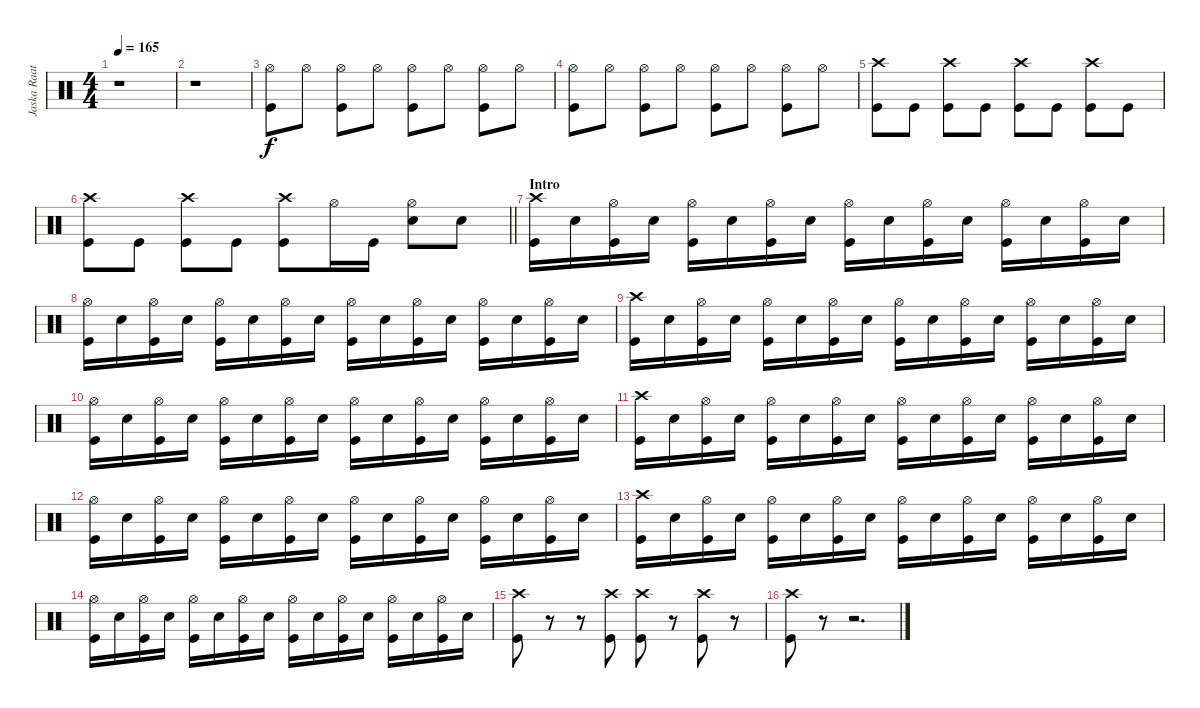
\track ("Jaska Raatikainen" "Jaska Raat") {instrument percussion}
\staff {score}
\articulation defaults
\ts (4 4)
\tempo 165
\clef neutral
\ks c
r.1{dy f} |
r.1 |
("Hi-Hat (open)" "Kick (hit)").8 "Hi-Hat (open)".8 ("Hi-Hat (open)" "Kick (hit)").8 "Hi-Hat (open)".8 ("Hi-Hat (open)" "Kick (hit)").8 "Hi-Hat (open)".8 ("Hi-Hat (open)" "Kick (hit)").8 "Hi-Hat (open)".8 |
("Hi-Hat (open)" "Kick (hit)").8 "Hi-Hat (open)".8 ("Hi-Hat (open)" "Kick (hit)").8 "Hi-Hat (open)".8 ("Hi-Hat (open)" "Kick (hit)").8 "Hi-Hat (open)".8 ("Hi-Hat (open)" "Kick (hit)").8 "Hi-Hat (open)".8 |
("Crash high (hit)" "Kick (hit)").8 "Kick (hit)".8 ("Crash high (hit)" "Kick (hit)").8 "Kick (hit)".8 ("Crash high (hit)" "Kick (hit)").8 "Kick (hit)".8 ("Crash high (hit)" "Kick (hit)").8 "Kick (hit)".8 |
\barLineRight lightlight
("Crash high (hit)" "Kick (hit)").8 "Kick (hit)".8 ("Crash high (hit)" "Kick (hit)").8 "Kick (hit)".8 ("Crash high (hit)" "Kick (hit)").8 "Hi-Hat (open)".16 "Kick (hit)".16 ("Hi-Hat (open)" "Electric Snare (hit)").8 "Electric Snare (hit)".8 |
\section ("" "Intro")
("Crash high (hit)" "Kick (hit)").16 "Electric Snare (hit)".16 ("Hi-Hat (open)" "Kick (hit)").16 "Electric Snare (hit)".16 ("Hi-Hat (open)" "Kick (hit)").16 "Electric Snare (hit)".16 ("Hi-Hat (open)" "Kick (hit)").16 "Electric Snare (hit)".16 ("Hi-Hat (open)" "Kick (hit)").16 "Electric Snare (hit)".16 ("Hi-Hat (open)" "Kick (hit)").16 "Electric Snare (hit)".16 ("Hi-Hat (open)" "Kick (hit)").16 "Electric Snare (hit)".16 ("Hi-Hat (open)" "Kick (hit)").16 "Electric Snare (hit)".16 |
("Hi-Hat (open)" "Kick (hit)").16 "Electric Snare (hit)".16 ("Hi-Hat (open)" "Kick (hit)").16 "Electric Snare (hit)".16 ("Hi-Hat (open)" "Kick (hit)").16 "Electric Snare (hit)".16 ("Hi-Hat (open)" "Kick (hit)").16 "Electric Snare (hit)".16 ("Hi-Hat (open)" "Kick (hit)").16 "Electric Snare (hit)".16 ("Hi-Hat (open)" "Kick (hit)").16 "Electric Snare (hit)".16 ("Hi-Hat (open)" "Kick (hit)").16 "Electric Snare (hit)".16 ("Hi-Hat (open)" "Kick (hit)").16 "Electric Snare (hit)".16 |
("Crash high (hit)" "Kick (hit)").16 "Electric Snare (hit)".16 ("Hi-Hat (open)" "Kick (hit)").16 "Electric Snare (hit)".16 ("Hi-Hat (open)" "Kick (hit)").16 "Electric Snare (hit)".16 ("Hi-Hat (open)" "Kick (hit)").16 "Electric Snare (hit)".16 ("Hi-Hat (open)" "Kick (hit)").16 "Electric Snare (hit)".16 ("Hi-Hat (open)" "Kick (hit)").16 "Electric Snare (hit)".16 ("Hi-Hat (open)" "Kick (hit)").16 "Electric Snare (hit)".16 ("Hi-Hat (open)" "Kick (hit)").16 "Electric Snare (hit)".16 |
("Hi-Hat (open)" "Kick (hit)").16 "Electric Snare (hit)".16 ("Hi-Hat (open)" "Kick (hit)").16 "Electric Snare (hit)".16 ("Hi-Hat (open)" "Kick (hit)").16 "Electric Snare (hit)".16 ("Hi-Hat (open)" "Kick (hit)").16 "Electric Snare (hit)".16 ("Hi-Hat (open)" "Kick (hit)").16 "Electric Snare (hit)".16 ("Hi-Hat (open)" "Kick (hit)").16 "Electric Snare (hit)".16 ("Hi-Hat (open)" "Kick (hit)").16 "Electric Snare (hit)".16 ("Hi-Hat (open)" "Kick (hit)").16 "Electric Snare (hit)".16 |
("Crash high (hit)" "Kick (hit)").16 "Electric Snare (hit)".16 ("Hi-Hat (open)" "Kick (hit)").16 "Electric Snare (hit)".16 ("Hi-Hat (open)" "Kick (hit)").16 "Electric Snare (hit)".16 ("Hi-Hat (open)" "Kick (hit)").16 "Electric Snare (hit)".16 ("Hi-Hat (open)" "Kick (hit)").16 "Electric Snare (hit)".16 ("Hi-Hat (open)" "Kick (hit)").16 "Electric Snare (hit)".16 ("Hi-Hat (open)" "Kick (hit)").16 "Electric Snare (hit)".16 ("Hi-Hat (open)" "Kick (hit)").16 "Electric Snare (hit)".16 |
("Hi-Hat (open)" "Kick (hit)").16 "Electric Snare (hit)".16 ("Hi-Hat (open)" "Kick (hit)").16 "Electric Snare (hit)".16 ("Hi-Hat (open)" "Kick (hit)").16 "Electric Snare (hit)".16 ("Hi-Hat (open)" "Kick (hit)").16 "Electric Snare (hit)".16 ("Hi-Hat (open)" "Kick (hit)").16 "Electric Snare (hit)".16 ("Hi-Hat (open)" "Kick (hit)").16 "Electric Snare (hit)".16 ("Hi-Hat (open)" "Kick (hit)").16 "Electric Snare (hit)".16 ("Hi-Hat (open)" "Kick (hit)").16 "Electric Snare (hit)".16 |
("Crash high (hit)" "Kick (hit)").16 "Electric Snare (hit)".16 ("Hi-Hat (open)" "Kick (hit)").16 "Electric Snare (hit)".16 ("Hi-Hat (open)" "Kick (hit)").16 "Electric Snare (hit)".16 ("Hi-Hat (open)" "Kick (hit)").16 "Electric Snare (hit)".16 ("Hi-Hat (open)" "Kick (hit)").16 "Electric Snare (hit)".16 ("Hi-Hat (open)" "Kick (hit)").16 "Electric Snare (hit)".16 ("Hi-Hat (open)" "Kick (hit)").16 "Electric Snare (hit)".16 ("Hi-Hat (open)" "Kick (hit)").16 "Electric Snare (hit)".16 |
("Hi-Hat (open)" "Kick (hit)").16 "Electric Snare (hit)".16 ("Hi-Hat (open)" "Kick (hit)").16 "Electric Snare (hit)".16 ("Hi-Hat (open)" "Kick (hit)").16 "Electric Snare (hit)".16 ("Hi-Hat (open)" "Kick (hit)").16 "Electric Snare (hit)".16 ("Hi-Hat (open)" "Kick (hit)").16 "Electric Snare (hit)".16 ("Hi-Hat (open)" "Kick (hit)").16 "Electric Snare (hit)".16 ("Hi-Hat (open)" "Kick (hit)").16 "Electric Snare (hit)".16 ("Hi-Hat (open)" "Kick (hit)").16 "Electric Snare (hit)".16 |
("Crash high (hit)" "Kick (hit)").8 r.8 r.8 ("Crash high (hit)" "Kick (hit)").8 ("Crash high (hit)" "Kick (hit)").8 r.8 ("Crash high (hit)" "Kick (hit)").8 r.8 |
("Crash high (hit)" "Kick (hit)").8 r.8 r.2{d}
